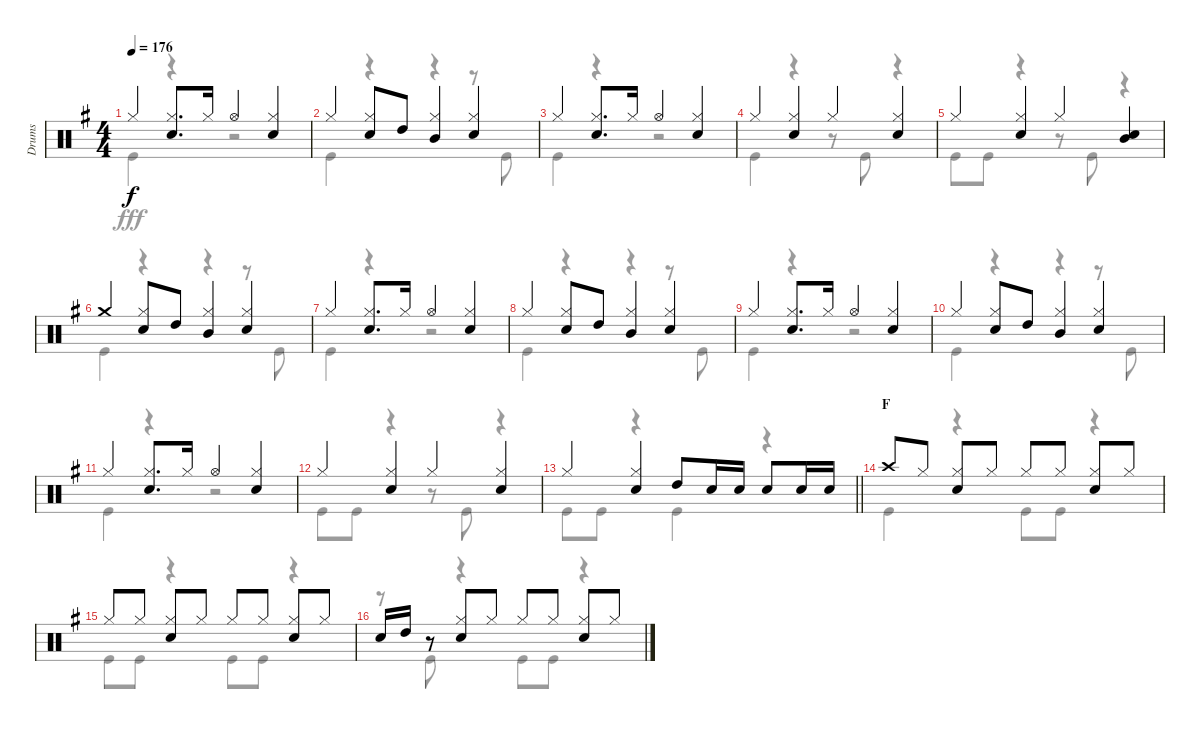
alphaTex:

\track ("Drums" "Drums") {instrument percussion}
\staff {score}
\articulation defaults
\voice
\ts (4 4)
\tempo 176
\clef neutral
\ks g "Hi-Hat (closed)".4{dy f}
("Hi-Hat (closed)" "Snare (hit) 2").8{d} "Hi-Hat (closed)".16 "Hi-Hat (open)".4 ("Hi-Hat (closed)" "Snare (hit) 2").4 |
"Hi-Hat (closed)".4 ("Hi-Hat (closed)" "Snare (hit) 2").8 "High Tom (hit)".8 ("Hi-Hat (closed)" "Mid Tom (hit)").4 ("Hi-Hat (closed)" "Snare (hit) 2").4 |
"Hi-Hat (closed)".4 ("Hi-Hat (closed)" "Snare (hit) 2").8{d} "Hi-Hat (closed)".16 "Hi-Hat (open)".4 ("Hi-Hat (closed)" "Snare (hit) 2").4 |
"Hi-Hat (closed)".4 ("Hi-Hat (closed)" "Snare (hit) 2").4 "Hi-Hat (closed)".4 ("Hi-Hat (closed)" "Snare (hit) 2").4 |
"Hi-Hat (closed)".4 ("Hi-Hat (closed)" "Snare (hit) 2").4 "Hi-Hat (closed)".4 ("Mid Tom (hit)" "Snare (hit) 2").4 |
"Crash medium (hit)".4 ("Hi-Hat (closed)" "Snare (hit) 2").8 "High Tom (hit)".8 ("Hi-Hat (closed)" "Mid Tom (hit)").4 ("Hi-Hat (closed)" "Snare (hit) 2").4 |
"Hi-Hat (closed)".4 ("Hi-Hat (closed)" "Snare (hit) 2").8{d} "Hi-Hat (closed)".16 "Hi-Hat (open)".4 ("Hi-Hat (closed)" "Snare (hit) 2").4 |
"Hi-Hat (closed)".4 ("Hi-Hat (closed)" "Snare (hit) 2").8 "High Tom (hit)".8 ("Hi-Hat (closed)" "Mid Tom (hit)").4 ("Hi-Hat (closed)" "Snare (hit) 2").4 |
"Hi-Hat (closed)".4 ("Hi-Hat (closed)" "Snare (hit) 2").8{d} "Hi-Hat (closed)".16 "Hi-Hat (open)".4 ("Hi-Hat (closed)" "Snare (hit) 2").4 |
"Hi-Hat (closed)".4 ("Hi-Hat (closed)" "Snare (hit) 2").8 "High Tom (hit)".8 ("Hi-Hat (closed)" "Mid Tom (hit)").4 ("Hi-Hat (closed)" "Snare (hit) 2").4 |
"Hi-Hat (closed)".4 ("Hi-Hat (closed)" "Snare (hit) 2").8{d} "Hi-Hat (closed)".16 "Hi-Hat (open)".4 ("Hi-Hat (closed)" "Snare (hit) 2").4 |
"Hi-Hat (closed)".4 ("Hi-Hat (closed)" "Snare (hit) 2").4 "Hi-Hat (closed)".4 ("Hi-Hat (closed)" "Snare (hit) 2").4 |
\barLineRight lightlight "Hi-Hat (closed)".4
("Hi-Hat (closed)" "Snare (hit) 2").4 "High Tom (hit)".8 "Snare (hit) 2".16 "Snare (hit) 2".16 "Snare (hit) 2".8 "Snare (hit) 2".16 "Snare (hit) 2".16 |
\section ("" "F")
"Crash high (hit)".8 "Hi-Hat (closed)".8 ("Hi-Hat (closed)" "Snare (hit) 2").8 "Hi-Hat (closed)".8 "Hi-Hat (closed)".8 "Hi-Hat (closed)".8 ("Hi-Hat (closed)" "Snare (hit) 2").8 "Hi-Hat (closed)".8 |
"Hi-Hat (closed)".8 "Hi-Hat (closed)".8 ("Hi-Hat (closed)" "Snare (hit) 2").8 "Hi-Hat (closed)".8 "Hi-Hat (closed)".8 "Hi-Hat (closed)".8 ("Hi-Hat (closed)" "Snare (hit) 2").8 "Hi-Hat (closed)".8 |
"Snare (hit) 2".16 "High Tom (hit)".16 r.8 ("Hi-Hat (closed)" "Snare (hit) 2").8 "Hi-Hat (closed)".8 "Hi-Hat (closed)".8 "Hi-Hat (closed)".8 ("Hi-Hat (closed)" "Snare (hit) 2").8 "Hi-Hat (closed)".8
\voice
\clef neutral
\ottava regular
\simile none
\ks g "Kick (hit)".4{dy fff}
r.4 r.2 |
"Kick (hit)".4 r.4 r.4 r.8 "Kick (hit)".8 |
"Kick (hit)".4 r.4 r.2 |
"Kick (hit)".4 r.4 r.8 "Kick (hit)".8 r.4 |
"Kick (hit)".8 "Kick (hit)".8 r.4 r.8 "Kick (hit)".8 r.4 |
"Kick (hit)".4 r.4 r.4 r.8 "Kick (hit)".8 |
"Kick (hit)".4 r.4 r.2 |
"Kick (hit)".4 r.4 r.4 r.8 "Kick (hit)".8 |
"Kick (hit)".4 r.4 r.2 |
"Kick (hit)".4 r.4 r.4 r.8 "Kick (hit)".8 |
"Kick (hit)".4 r.4 r.2 |
"Kick (hit)".8 "Kick (hit)".8 r.4 r.8 "Kick (hit)".8 r.4 |
\barLineRight lightlight "Kick (hit)".8 "Kick (hit)".8
r.4 "Kick (hit)".4 r.4 |
"Kick (hit)".4 r.4 "Kick (hit)".8 "Kick (hit)".8 r.4 |
"Kick (hit)".8 "Kick (hit)".8 r.4 "Kick (hit)".8 "Kick (hit)".8 r.4 |
r.8 "Kick (hit)".8 r.4 "Kick (hit)".8 "Kick (hit)".8 r.4
